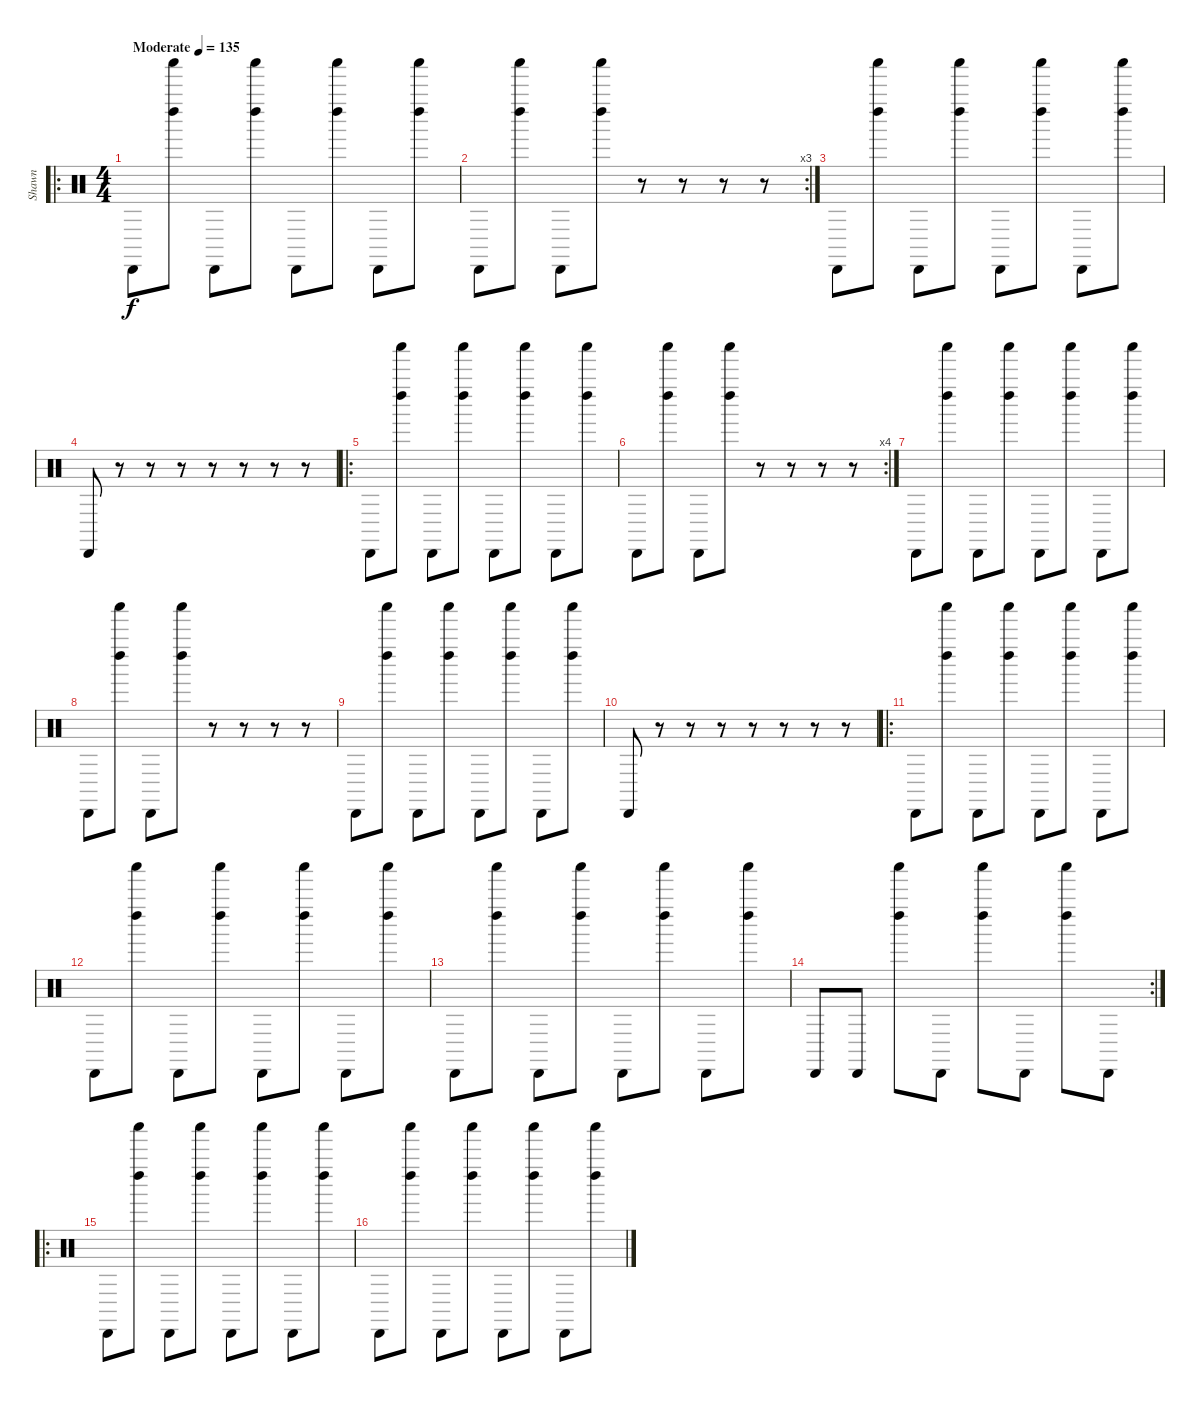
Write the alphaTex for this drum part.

\track ("Shawn" "Shawn") {instrument percussion}
\staff {score}
\articulation defaults
\ro
\ts (4 4)
\tempo (135 "Moderate")
\clef neutral
\ks c "Cabasa (hit)".8{dy f}
("Left Maraca (hit)" "Shaker (hit)").8 "Cabasa (hit)".8 ("Left Maraca (hit)" "Shaker (hit)").8 "Cabasa (hit)".8 ("Left Maraca (hit)" "Shaker (hit)").8 "Cabasa (hit)".8 ("Left Maraca (hit)" "Shaker (hit)").8 |
\rc 3 "Cabasa (hit)".8
("Left Maraca (hit)" "Shaker (hit)").8 "Cabasa (hit)".8 ("Left Maraca (hit)" "Shaker (hit)").8 r.8 r.8 r.8 r.8 |
"Cabasa (hit)".8 ("Left Maraca (hit)" "Shaker (hit)").8 "Cabasa (hit)".8 ("Left Maraca (hit)" "Shaker (hit)").8 "Cabasa (hit)".8 ("Left Maraca (hit)" "Shaker (hit)").8 "Cabasa (hit)".8 ("Left Maraca (hit)" "Shaker (hit)").8 |
"Cabasa (hit)".8 r.8 r.8 r.8 r.8 r.8 r.8 r.8 |
\ro "Cabasa (hit)".8
("Left Maraca (hit)" "Shaker (hit)").8 "Cabasa (hit)".8 ("Left Maraca (hit)" "Shaker (hit)").8 "Cabasa (hit)".8 ("Left Maraca (hit)" "Shaker (hit)").8 "Cabasa (hit)".8 ("Left Maraca (hit)" "Shaker (hit)").8 |
\rc 4 "Cabasa (hit)".8
("Left Maraca (hit)" "Shaker (hit)").8 "Cabasa (hit)".8 ("Left Maraca (hit)" "Shaker (hit)").8 r.8 r.8 r.8 r.8 |
"Cabasa (hit)".8 ("Left Maraca (hit)" "Shaker (hit)").8 "Cabasa (hit)".8 ("Left Maraca (hit)" "Shaker (hit)").8 "Cabasa (hit)".8 ("Left Maraca (hit)" "Shaker (hit)").8 "Cabasa (hit)".8 ("Left Maraca (hit)" "Shaker (hit)").8 |
"Cabasa (hit)".8 ("Left Maraca (hit)" "Shaker (hit)").8 "Cabasa (hit)".8 ("Left Maraca (hit)" "Shaker (hit)").8 r.8 r.8 r.8 r.8 |
"Cabasa (hit)".8 ("Left Maraca (hit)" "Shaker (hit)").8 "Cabasa (hit)".8 ("Left Maraca (hit)" "Shaker (hit)").8 "Cabasa (hit)".8 ("Left Maraca (hit)" "Shaker (hit)").8 "Cabasa (hit)".8 ("Left Maraca (hit)" "Shaker (hit)").8 |
"Cabasa (hit)".8 r.8 r.8 r.8 r.8 r.8 r.8 r.8 |
\ro "Cabasa (hit)".8
("Left Maraca (hit)" "Shaker (hit)").8 "Cabasa (hit)".8 ("Left Maraca (hit)" "Shaker (hit)").8 "Cabasa (hit)".8 ("Left Maraca (hit)" "Shaker (hit)").8 "Cabasa (hit)".8 ("Left Maraca (hit)" "Shaker (hit)").8 |
"Cabasa (hit)".8 ("Left Maraca (hit)" "Shaker (hit)").8 "Cabasa (hit)".8 ("Left Maraca (hit)" "Shaker (hit)").8 "Cabasa (hit)".8 ("Left Maraca (hit)" "Shaker (hit)").8 "Cabasa (hit)".8 ("Left Maraca (hit)" "Shaker (hit)").8 |
"Cabasa (hit)".8 ("Left Maraca (hit)" "Shaker (hit)").8 "Cabasa (hit)".8 ("Left Maraca (hit)" "Shaker (hit)").8 "Cabasa (hit)".8 ("Left Maraca (hit)" "Shaker (hit)").8 "Cabasa (hit)".8 ("Left Maraca (hit)" "Shaker (hit)").8 |
\rc 2 "Cabasa (hit)".8 "Cabasa (hit)".8
("Left Maraca (hit)" "Shaker (hit)").8 "Cabasa (hit)".8 ("Left Maraca (hit)" "Shaker (hit)").8 "Cabasa (hit)".8 ("Left Maraca (hit)" "Shaker (hit)").8 "Cabasa (hit)".8 |
\ro "Cabasa (hit)".8
("Left Maraca (hit)" "Shaker (hit)").8 "Cabasa (hit)".8 ("Left Maraca (hit)" "Shaker (hit)").8 "Cabasa (hit)".8 ("Left Maraca (hit)" "Shaker (hit)").8 "Cabasa (hit)".8 ("Left Maraca (hit)" "Shaker (hit)").8 |
"Cabasa (hit)".8 ("Left Maraca (hit)" "Shaker (hit)").8 "Cabasa (hit)".8 ("Left Maraca (hit)" "Shaker (hit)").8 "Cabasa (hit)".8 ("Left Maraca (hit)" "Shaker (hit)").8 "Cabasa (hit)".8 ("Left Maraca (hit)" "Shaker (hit)").8
